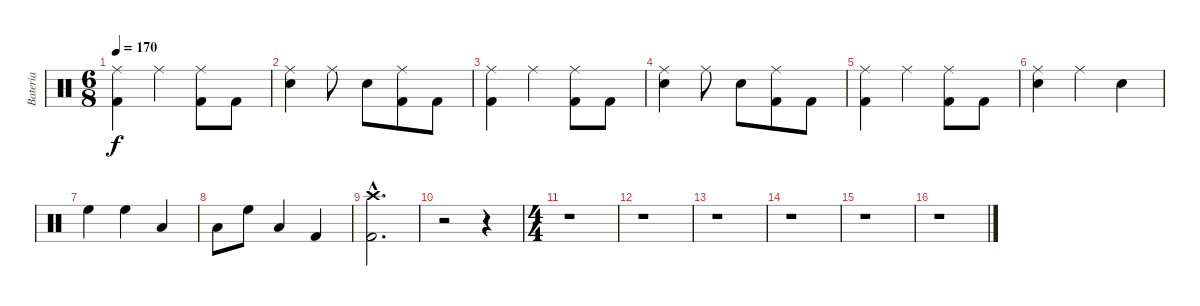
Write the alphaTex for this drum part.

\track ("Bateria" "Bateria") {instrument percussion}
\staff {score}
\articulation defaults
\ts (6 8)
\tempo 170
\clef neutral
\ks c
("Ride (middle)" "Kick (hit) 2").4{dy f} "Ride (middle)".4 ("Ride (middle)" "Kick (hit) 2").8 "Kick (hit) 2".8 |
("Ride (middle)" "Snare (hit) 2").4 "Ride (middle)".8 "Snare (hit) 2".8 ("Ride (middle)" "Kick (hit) 2").8 "Kick (hit) 2".8 |
("Ride (middle)" "Kick (hit) 2").4 "Ride (middle)".4 ("Ride (middle)" "Kick (hit) 2").8 "Kick (hit) 2".8 |
("Ride (middle)" "Snare (hit) 2").4 "Ride (middle)".8 "Snare (hit) 2".8 ("Ride (middle)" "Kick (hit) 2").8 "Kick (hit) 2".8 |
("Ride (middle)" "Kick (hit) 2").4 "Ride (middle)".4 ("Ride (middle)" "Kick (hit) 2").8 "Kick (hit) 2".8 |
("Ride (middle)" "Snare (hit) 2").4 "Ride (middle)".4 "Snare (hit) 2".4 |
"High Floor Tom (hit)".4 "High Floor Tom (hit)".4 "Low Tom (hit)".4 |
"Low Tom (hit)".8 "High Floor Tom (hit)".8 "Low Tom (hit)".4 "Kick (hit) 2".4 |
("Crash high (hit)"{hac} "Kick (hit) 2"{hac}).2{d} |
r.2 r.4 |
\ts (4 4)
\section ("" "")
r.1 |
r.1 |
r.1 |
r.1 |
r.1 |
r.1
